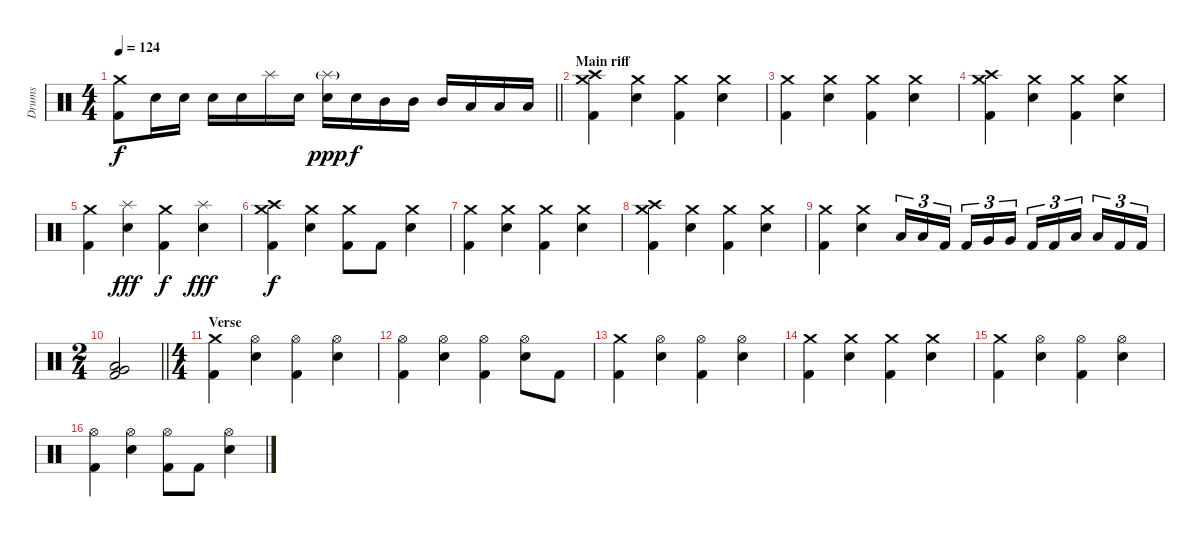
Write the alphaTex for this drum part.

\track ("Drums" "Drums") {instrument percussion}
\staff {score}
\articulation defaults
\ts (4 4)
\tempo 124
\clef neutral
\barLineRight lightlight
\ks c
("Crash medium (hit)" "Kick (hit) 2").8{dy f} "Electric Snare (hit)".16 "Electric Snare (hit)".16 "Electric Snare (hit)".16 "Electric Snare (hit)".16 "Splash (hit)".16 "Electric Snare (hit)".16 ("Splash (hit)"{g} "Electric Snare (hit)").16{dy ppp} "Electric Snare (hit)".16{dy f} "Mid Tom (hit)".16 "Mid Tom (hit)".16 "Mid Tom (hit)".16 "Low Tom (hit)".16 "Low Tom (hit)".16 "Low Tom (hit)".16 |
\section ("" "Main riff")
("Crash medium (hit)" "Crash high (hit)" "Kick (hit) 2").4 ("Crash medium (hit)" "Electric Snare (hit)").4 ("Crash medium (hit)" "Kick (hit) 2").4 ("Crash medium (hit)" "Electric Snare (hit)").4 |
("Crash medium (hit)" "Kick (hit) 2").4 ("Crash medium (hit)" "Electric Snare (hit)").4 ("Crash medium (hit)" "Kick (hit) 2").4 ("Crash medium (hit)" "Electric Snare (hit)").4 |
("Crash medium (hit)" "Crash high (hit)" "Kick (hit) 2").4 ("Crash medium (hit)" "Electric Snare (hit)").4 ("Crash medium (hit)" "Kick (hit) 2").4 ("Crash medium (hit)" "Electric Snare (hit)").4 |
("Crash medium (hit)" "Kick (hit) 2").4 ("Splash (hit)" "Electric Snare (hit)").4{dy fff} ("Crash medium (hit)" "Kick (hit) 2").4{dy f} ("Splash (hit)" "Electric Snare (hit)").4{dy fff} |
("Crash medium (hit)" "Crash high (hit)" "Kick (hit) 2").4{dy f} ("Crash medium (hit)" "Electric Snare (hit)").4 ("Crash medium (hit)" "Kick (hit) 2").8 "Kick (hit) 2".8 ("Crash medium (hit)" "Electric Snare (hit)").4 |
("Crash medium (hit)" "Kick (hit) 2").4 ("Crash medium (hit)" "Electric Snare (hit)").4 ("Crash medium (hit)" "Kick (hit) 2").4 ("Crash medium (hit)" "Electric Snare (hit)").4 |
("Crash medium (hit)" "Crash high (hit)" "Kick (hit) 2").4 ("Crash medium (hit)" "Electric Snare (hit)").4 ("Crash medium (hit)" "Kick (hit) 2").4 ("Crash medium (hit)" "Electric Snare (hit)").4 |
("Crash medium (hit)" "Kick (hit) 2").4 ("Crash medium (hit)" "Electric Snare (hit)").4 "Low Tom (hit)".16{tu (3 2)} "Low Tom (hit)".16{tu (3 2)} "Kick (hit) 2".16{tu (3 2) beam splitsecondary} "Kick (hit) 2".16{tu (3 2)} "Very Low Tom (hit)".16{tu (3 2)} "Very Low Tom (hit)".16{tu (3 2)} "Kick (hit) 2".16{tu (3 2)} "Kick (hit) 2".16{tu (3 2)} "Low Floor Tom (hit)".16{tu (3 2) beam splitsecondary} "Low Floor Tom (hit)".16{tu (3 2)} "Kick (hit) 2".16{tu (3 2)} "Kick (hit) 2".16{tu (3 2)} |
\ts (2 4)
\barLineRight lightlight
("Very Low Tom (hit)" "Low Floor Tom (hit)" "Kick (hit) 2").2 |
\ts (4 4)
\section ("" "Verse")
("Crash medium (hit)" "Kick (hit) 2").4 ("Hi-Hat (open)" "Electric Snare (hit)").4 ("Hi-Hat (open)" "Kick (hit) 2").4 ("Hi-Hat (open)" "Electric Snare (hit)").4 |
("Hi-Hat (open)" "Kick (hit) 2").4 ("Hi-Hat (open)" "Electric Snare (hit)").4 ("Hi-Hat (open)" "Kick (hit) 2").4 ("Hi-Hat (open)" "Electric Snare (hit)").8 "Kick (hit) 2".8 |
("Crash medium (hit)" "Kick (hit) 2").4 ("Hi-Hat (open)" "Electric Snare (hit)").4 ("Hi-Hat (open)" "Kick (hit) 2").4 ("Hi-Hat (open)" "Electric Snare (hit)").4 |
("Crash medium (hit)" "Kick (hit) 2").4 ("Crash medium (hit)" "Electric Snare (hit)").4 ("Crash medium (hit)" "Kick (hit) 2").4 ("Crash medium (hit)" "Electric Snare (hit)").4 |
("Crash medium (hit)" "Kick (hit) 2").4 ("Hi-Hat (open)" "Electric Snare (hit)").4 ("Hi-Hat (open)" "Kick (hit) 2").4 ("Hi-Hat (open)" "Electric Snare (hit)").4 |
("Hi-Hat (open)" "Kick (hit) 2").4 ("Hi-Hat (open)" "Electric Snare (hit)").4 ("Hi-Hat (open)" "Kick (hit) 2").8 "Kick (hit) 2".8 ("Hi-Hat (open)" "Electric Snare (hit)").4
